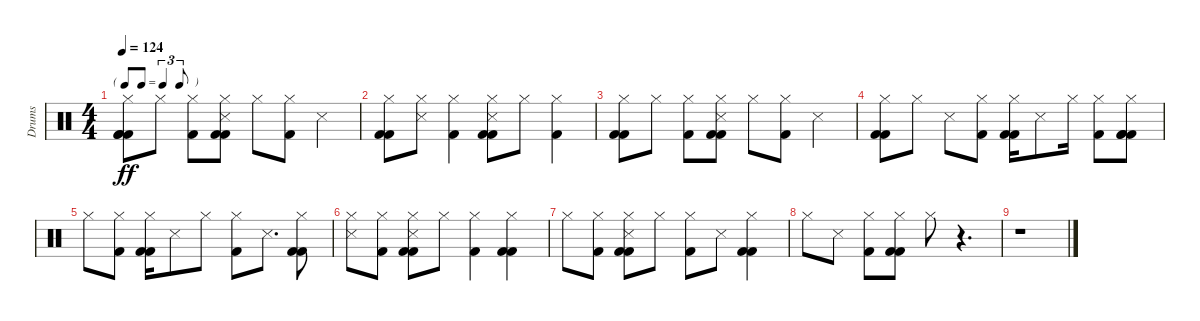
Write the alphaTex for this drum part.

\track ("Drums" "Drums") {instrument percussion}
\staff {score}
\articulation defaults
\ts (4 4)
\tf triplet8th
\tempo 124
\clef neutral
\ks c
("Kick (hit) 2" "Kick (hit) 2" "Kick (hit) 2" "Hi-Hat (closed)").8{dy ff} "Hi-Hat (closed)".8 ("Kick (hit) 2" "Hi-Hat (closed)").8 ("Kick (hit) 2" "Kick (hit) 2" "Hi-Hat (closed)" "Snare (side stick) 3").8 "Hi-Hat (closed)".8 ("Kick (hit) 2" "Hi-Hat (closed)").8 "Snare (side stick) 3".4 |
("Kick (hit) 2" "Kick (hit) 2" "Hi-Hat (closed)").8 ("Snare (side stick) 3" "Hi-Hat (closed)").8 ("Kick (hit) 2" "Hi-Hat (closed)").4 ("Snare (side stick) 3" "Kick (hit) 2" "Kick (hit) 2" "Hi-Hat (closed)").8 "Hi-Hat (closed)".8 ("Kick (hit) 2" "Hi-Hat (closed)").4 |
("Kick (hit) 2" "Kick (hit) 2" "Hi-Hat (closed)").8 "Hi-Hat (closed)".8 ("Kick (hit) 2" "Hi-Hat (closed)").8 ("Snare (side stick) 3" "Kick (hit) 2" "Kick (hit) 2" "Hi-Hat (closed)").8 "Hi-Hat (closed)".8 ("Kick (hit) 2" "Hi-Hat (closed)").8 "Snare (side stick) 3".4 |
("Kick (hit) 2" "Kick (hit) 2" "Hi-Hat (closed)").8 "Hi-Hat (closed)".8 "Snare (side stick) 3".8 ("Kick (hit) 2" "Hi-Hat (closed)").8 ("Kick (hit) 2" "Kick (hit) 2" "Hi-Hat (closed)").16 "Snare (side stick) 3".8 "Hi-Hat (closed)".16 ("Kick (hit) 2" "Hi-Hat (closed)").8 ("Kick (hit) 2" "Kick (hit) 2" "Kick (hit) 2" "Hi-Hat (closed)").8 |
"Hi-Hat (closed)".8 ("Kick (hit) 2" "Hi-Hat (closed)").8 ("Kick (hit) 2" "Kick (hit) 2" "Hi-Hat (closed)").16 "Snare (side stick) 3".8 "Hi-Hat (closed)".8 ("Kick (hit) 2" "Hi-Hat (closed)").8 "Snare (side stick) 3".8{d} ("Kick (hit) 2" "Kick (hit) 2" "Hi-Hat (closed)").8 |
("Snare (side stick) 3" "Hi-Hat (closed)").8 ("Kick (hit) 2" "Hi-Hat (closed)").8 ("Snare (side stick) 3" "Kick (hit) 2" "Kick (hit) 2" "Hi-Hat (closed)").8 "Hi-Hat (closed)".8 ("Kick (hit) 2" "Hi-Hat (closed)").4 ("Kick (hit) 2" "Kick (hit) 2" "Hi-Hat (closed)").4 |
"Hi-Hat (closed)".8 ("Kick (hit) 2" "Hi-Hat (closed)").8 ("Snare (side stick) 3" "Kick (hit) 2" "Kick (hit) 2" "Hi-Hat (closed)").8 "Hi-Hat (closed)".8 ("Kick (hit) 2" "Hi-Hat (closed)").8 "Snare (side stick) 3".8 ("Kick (hit) 2" "Kick (hit) 2" "Hi-Hat (closed)").4 |
"Hi-Hat (closed)".8 "Snare (side stick) 3".8 ("Kick (hit) 2" "Hi-Hat (closed)").8 ("Kick (hit) 2" "Kick (hit) 2" "Hi-Hat (closed)").8 "Hi-Hat (closed)".8 r.4{d} |
r.1
